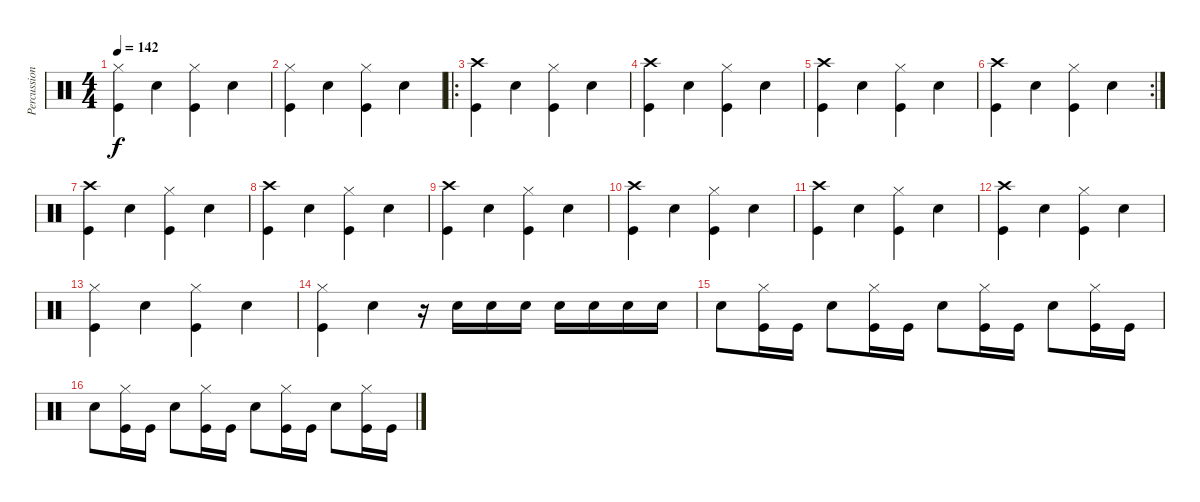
\track ("Percussion" "Percussion") {instrument percussion}
\staff {score}
\articulation defaults
\ts (4 4)
\tempo 142
\clef neutral
\ks c
("Hi-Hat (closed)" "Kick (hit)").4{dy f} "Snare (hit) 2".4 ("Hi-Hat (closed)" "Kick (hit)").4 "Snare (hit) 2".4 |
("Hi-Hat (closed)" "Kick (hit)").4 "Snare (hit) 2".4 ("Hi-Hat (closed)" "Kick (hit)").4 "Snare (hit) 2".4 |
\ro
("Crash high (hit)" "Kick (hit)").4 "Snare (hit) 2".4 ("Hi-Hat (closed)" "Kick (hit)").4 "Snare (hit) 2".4 |
("Crash high (hit)" "Kick (hit)").4 "Snare (hit) 2".4 ("Hi-Hat (closed)" "Kick (hit)").4 "Snare (hit) 2".4 |
("Crash high (hit)" "Kick (hit)").4 "Snare (hit) 2".4 ("Hi-Hat (closed)" "Kick (hit)").4 "Snare (hit) 2".4 |
\rc 2
("Crash high (hit)" "Kick (hit)").4 "Snare (hit) 2".4 ("Hi-Hat (closed)" "Kick (hit)").4 "Snare (hit) 2".4 |
("Crash high (hit)" "Kick (hit)").4 "Snare (hit) 2".4 ("Hi-Hat (closed)" "Kick (hit)").4 "Snare (hit) 2".4 |
("Crash high (hit)" "Kick (hit)").4 "Snare (hit) 2".4 ("Hi-Hat (closed)" "Kick (hit)").4 "Snare (hit) 2".4 |
("Crash high (hit)" "Kick (hit)").4 "Snare (hit) 2".4 ("Hi-Hat (closed)" "Kick (hit)").4 "Snare (hit) 2".4 |
("Crash high (hit)" "Kick (hit)").4 "Snare (hit) 2".4 ("Hi-Hat (closed)" "Kick (hit)").4 "Snare (hit) 2".4 |
("Crash high (hit)" "Kick (hit)").4 "Snare (hit) 2".4 ("Hi-Hat (closed)" "Kick (hit)").4 "Snare (hit) 2".4 |
("Crash high (hit)" "Kick (hit)").4 "Snare (hit) 2".4 ("Hi-Hat (closed)" "Kick (hit)").4 "Snare (hit) 2".4 |
("Hi-Hat (closed)" "Kick (hit)").4 "Snare (hit) 2".4 ("Hi-Hat (closed)" "Kick (hit)").4 "Snare (hit) 2".4 |
("Hi-Hat (closed)" "Kick (hit)").4 "Snare (hit) 2".4 r.16 "Snare (hit) 2".16 "Snare (hit) 2".16 "Snare (hit) 2".16 "Snare (hit) 2".16 "Snare (hit) 2".16 "Snare (hit) 2".16 "Snare (hit) 2".16 |
"Snare (hit) 2".8 ("Hi-Hat (closed)" "Kick (hit)").16 "Kick (hit)".16 "Snare (hit) 2".8 ("Hi-Hat (closed)" "Kick (hit)").16 "Kick (hit)".16 "Snare (hit) 2".8 ("Hi-Hat (closed)" "Kick (hit)").16 "Kick (hit)".16 "Snare (hit) 2".8 ("Hi-Hat (closed)" "Kick (hit)").16 "Kick (hit)".16 |
"Snare (hit) 2".8 ("Hi-Hat (closed)" "Kick (hit)").16 "Kick (hit)".16 "Snare (hit) 2".8 ("Hi-Hat (closed)" "Kick (hit)").16 "Kick (hit)".16 "Snare (hit) 2".8 ("Hi-Hat (closed)" "Kick (hit)").16 "Kick (hit)".16 "Snare (hit) 2".8 ("Hi-Hat (closed)" "Kick (hit)").16 "Kick (hit)".16
